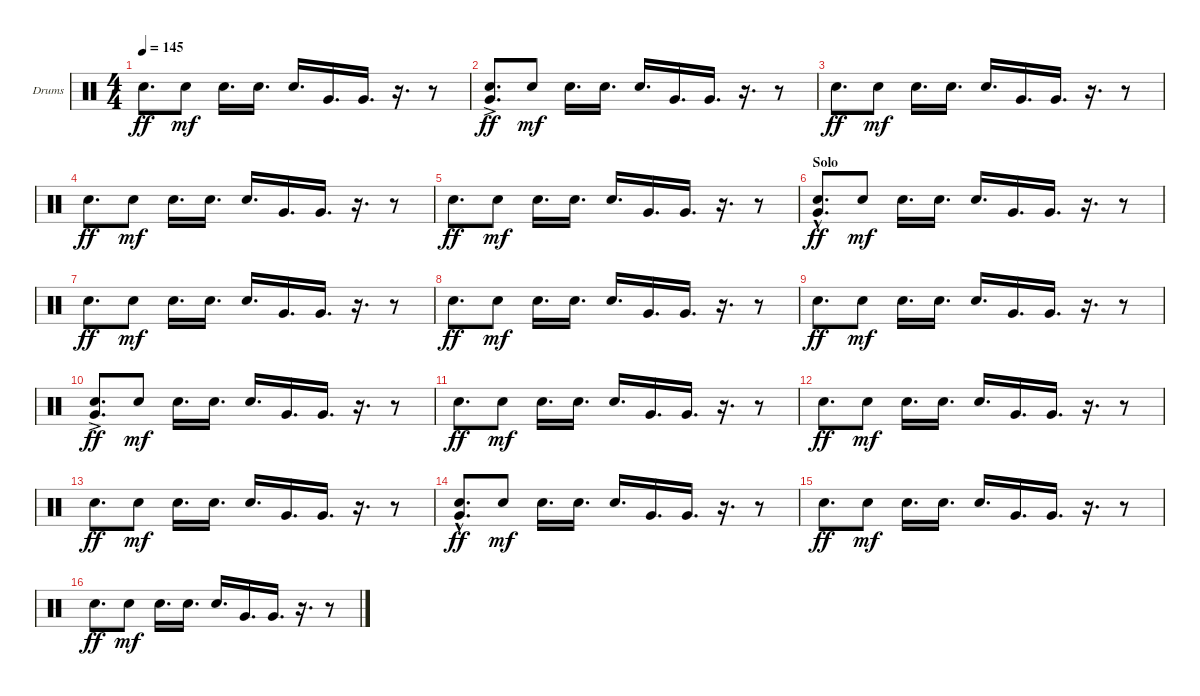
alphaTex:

\defaultSystemsLayout 4
\bracketExtendMode groupsimilarinstruments
\firstSystemTrackNameOrientation horizontal
\otherSystemsTrackNameOrientation horizontal
\track ("Drumkit" "Drums") {instrument percussion}
\staff {score}
\articulation defaults
\ts (4 4)
\tempo 145
\clef neutral
\ks c "Snare (hit) 2".8{d dy ff} "Snare (hit) 2".8{dy mf} "Snare (hit) 2".16{d} "Snare (hit) 2".16{d} "Snare (hit) 2".16{d} "Very Low Tom (hit)".16{d} "Very Low Tom (hit)".16{d}
r.16{d} r.8 |
("Snare (hit) 2" "Very Low Tom (hit)"{ac}).8{d dy ff} "Snare (hit) 2".8{dy mf} "Snare (hit) 2".16{d} "Snare (hit) 2".16{d} "Snare (hit) 2".16{d} "Very Low Tom (hit)".16{d} "Very Low Tom (hit)".16{d} r.16{d} r.8 |
"Snare (hit) 2".8{d dy ff} "Snare (hit) 2".8{dy mf} "Snare (hit) 2".16{d} "Snare (hit) 2".16{d} "Snare (hit) 2".16{d} "Very Low Tom (hit)".16{d} "Very Low Tom (hit)".16{d} r.16{d} r.8 |
"Snare (hit) 2".8{d dy ff} "Snare (hit) 2".8{dy mf} "Snare (hit) 2".16{d} "Snare (hit) 2".16{d} "Snare (hit) 2".16{d} "Very Low Tom (hit)".16{d} "Very Low Tom (hit)".16{d} r.16{d} r.8 |
"Snare (hit) 2".8{d dy ff} "Snare (hit) 2".8{dy mf} "Snare (hit) 2".16{d} "Snare (hit) 2".16{d} "Snare (hit) 2".16{d} "Very Low Tom (hit)".16{d} "Very Low Tom (hit)".16{d} r.16{d} r.8 |
\section ("" "Solo")
("Snare (hit) 2" "Very Low Tom (hit)"{hac}).8{d dy ff} "Snare (hit) 2".8{dy mf} "Snare (hit) 2".16{d} "Snare (hit) 2".16{d} "Snare (hit) 2".16{d} "Very Low Tom (hit)".16{d} "Very Low Tom (hit)".16{d} r.16{d} r.8 |
"Snare (hit) 2".8{d dy ff} "Snare (hit) 2".8{dy mf} "Snare (hit) 2".16{d} "Snare (hit) 2".16{d} "Snare (hit) 2".16{d} "Very Low Tom (hit)".16{d} "Very Low Tom (hit)".16{d} r.16{d} r.8 |
"Snare (hit) 2".8{d dy ff} "Snare (hit) 2".8{dy mf} "Snare (hit) 2".16{d} "Snare (hit) 2".16{d} "Snare (hit) 2".16{d} "Very Low Tom (hit)".16{d} "Very Low Tom (hit)".16{d} r.16{d} r.8 |
"Snare (hit) 2".8{d dy ff} "Snare (hit) 2".8{dy mf} "Snare (hit) 2".16{d} "Snare (hit) 2".16{d} "Snare (hit) 2".16{d} "Very Low Tom (hit)".16{d} "Very Low Tom (hit)".16{d} r.16{d} r.8 |
("Snare (hit) 2" "Very Low Tom (hit)"{ac}).8{d dy ff} "Snare (hit) 2".8{dy mf} "Snare (hit) 2".16{d} "Snare (hit) 2".16{d} "Snare (hit) 2".16{d} "Very Low Tom (hit)".16{d} "Very Low Tom (hit)".16{d} r.16{d} r.8 |
"Snare (hit) 2".8{d dy ff} "Snare (hit) 2".8{dy mf} "Snare (hit) 2".16{d} "Snare (hit) 2".16{d} "Snare (hit) 2".16{d} "Very Low Tom (hit)".16{d} "Very Low Tom (hit)".16{d} r.16{d} r.8 |
"Snare (hit) 2".8{d dy ff} "Snare (hit) 2".8{dy mf} "Snare (hit) 2".16{d} "Snare (hit) 2".16{d} "Snare (hit) 2".16{d} "Very Low Tom (hit)".16{d} "Very Low Tom (hit)".16{d} r.16{d} r.8 |
"Snare (hit) 2".8{d dy ff} "Snare (hit) 2".8{dy mf} "Snare (hit) 2".16{d} "Snare (hit) 2".16{d} "Snare (hit) 2".16{d} "Very Low Tom (hit)".16{d} "Very Low Tom (hit)".16{d} r.16{d} r.8 |
("Snare (hit) 2" "Very Low Tom (hit)"{hac}).8{d dy ff} "Snare (hit) 2".8{dy mf} "Snare (hit) 2".16{d} "Snare (hit) 2".16{d} "Snare (hit) 2".16{d} "Very Low Tom (hit)".16{d} "Very Low Tom (hit)".16{d} r.16{d} r.8 |
"Snare (hit) 2".8{d dy ff} "Snare (hit) 2".8{dy mf} "Snare (hit) 2".16{d} "Snare (hit) 2".16{d} "Snare (hit) 2".16{d} "Very Low Tom (hit)".16{d} "Very Low Tom (hit)".16{d} r.16{d} r.8 |
"Snare (hit) 2".8{d dy ff} "Snare (hit) 2".8{dy mf} "Snare (hit) 2".16{d} "Snare (hit) 2".16{d} "Snare (hit) 2".16{d} "Very Low Tom (hit)".16{d} "Very Low Tom (hit)".16{d} r.16{d} r.8
